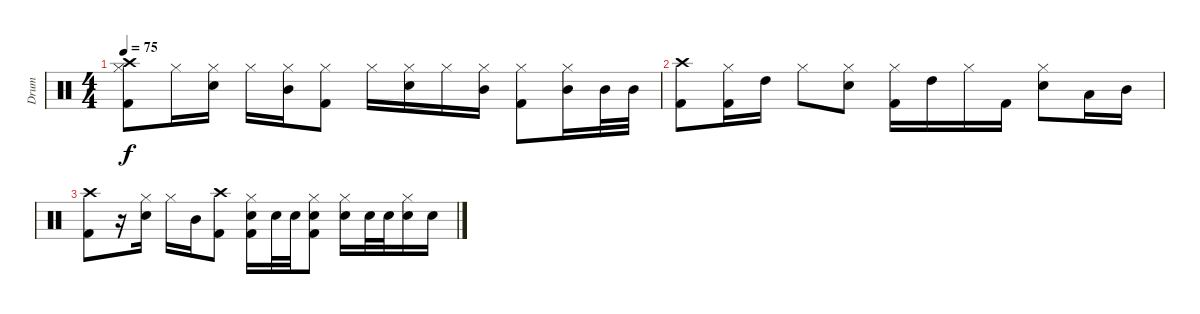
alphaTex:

\track ("Drum" "Drum") {instrument percussion}
\staff {score}
\articulation defaults
\ts (4 4)
\tempo 75
\clef neutral
\ks c
("Hi-Hat (closed)" "Crash high (hit)" "Kick (hit) 2").8{dy f} "Hi-Hat (closed)".16 ("Hi-Hat (closed)" "Electric Snare (hit)").16 "Hi-Hat (closed)".16 ("Hi-Hat (closed)" "Mid Tom (hit)").16 ("Hi-Hat (closed)" "Kick (hit) 2").8 "Hi-Hat (closed)".16 ("Hi-Hat (closed)" "Electric Snare (hit)").16 "Hi-Hat (closed)".16 ("Hi-Hat (closed)" "Mid Tom (hit)").16 ("Hi-Hat (closed)" "Kick (hit) 2").8 ("Hi-Hat (closed)" "Mid Tom (hit)").16 "Mid Tom (hit)".32 "Mid Tom (hit)".32 |
("Crash high (hit)" "Kick (hit) 2").8 ("Hi-Hat (closed)" "Kick (hit) 2").16 "High Tom (hit)".16 "Hi-Hat (closed)".8 ("Hi-Hat (closed)" "Electric Snare (hit)").8 ("Hi-Hat (closed)" "Kick (hit) 2").16 "High Tom (hit)".16 "Hi-Hat (closed)".16 "Kick (hit) 2".16 ("Hi-Hat (closed)" "Electric Snare (hit)").8 "Low Tom (hit)".16 "Mid Tom (hit)".16 |
("Crash high (hit)" "Kick (hit) 2").8 r.16 ("Hi-Hat (closed)" "Electric Snare (hit)").16 "Hi-Hat (closed)".16 "Mid Tom (hit)".16 ("Crash high (hit)" "Kick (hit) 2").8 ("Hi-Hat (closed)" "Electric Snare (hit)" "Kick (hit) 2").16 "Electric Snare (hit)".32 "Electric Snare (hit)".32 ("Hi-Hat (closed)" "Snare (hit) 2" "Kick (hit) 2").8 ("Hi-Hat (closed)" "Electric Snare (hit)").16 "Snare (hit) 2".32 "Snare (hit) 2".32 ("Hi-Hat (closed)" "Electric Snare (hit)").16 "Electric Snare (hit)".16
